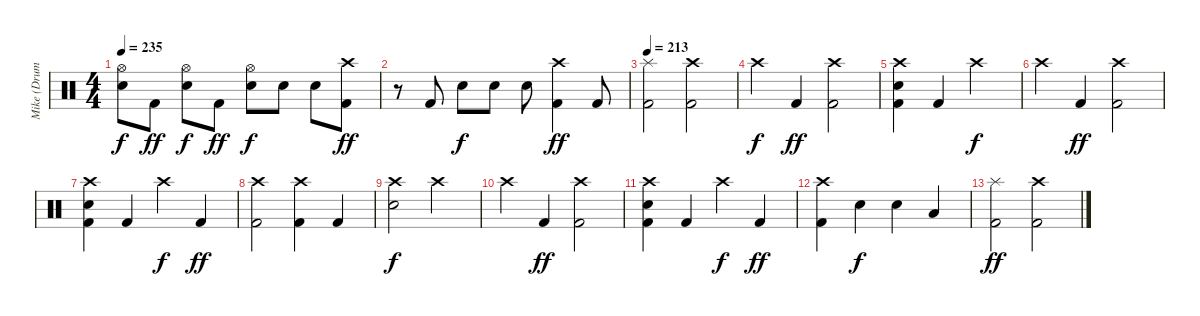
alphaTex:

\track ("Mike (Drums)" "Mike (Drum") {instrument percussion}
\staff {score}
\articulation defaults
\ts (4 4)
\tempo 235
\clef neutral
\ks c
("Hi-Hat (open)" "Electric Snare (hit)").8{dy f} "Kick (hit) 2".8{dy ff} ("Hi-Hat (open)" "Electric Snare (hit)").8{dy f} "Kick (hit) 2".8{dy ff} ("Hi-Hat (open)" "Electric Snare (hit)").8{dy f} "Electric Snare (hit)".8 "Electric Snare (hit)".8 ("Crash high (hit)" "Kick (hit) 2").8{dy ff} |
r.8 "Kick (hit) 2".8 "Electric Snare (hit)".8{dy f} "Electric Snare (hit)".8 "Electric Snare (hit)".8 ("Crash high (hit)" "Kick (hit) 2").4{dy ff} "Kick (hit) 2".8 |
\tempo 213
("Splash (hit)" "Kick (hit) 2").2 ("Crash high (hit)" "Kick (hit) 2").2 |
"Crash high (hit)".4{dy f} "Kick (hit) 2".4{dy ff} ("Crash high (hit)" "Kick (hit) 2").2 |
("Crash high (hit)" "Electric Snare (hit)" "Kick (hit) 2").4 "Kick (hit) 2".4 "Crash high (hit)".2{dy f} |
"Crash high (hit)".4 "Kick (hit) 2".4{dy ff} ("Crash high (hit)" "Kick (hit) 2").2 |
("Crash high (hit)" "Electric Snare (hit)" "Kick (hit) 2").4 "Kick (hit) 2".4 "Crash high (hit)".4{dy f} "Kick (hit) 2".4{dy ff} |
("Crash high (hit)" "Kick (hit) 2").2 ("Crash high (hit)" "Kick (hit) 2").4 "Kick (hit) 2".4 |
("Crash high (hit)" "Electric Snare (hit)").2{dy f} "Crash high (hit)".2 |
"Crash high (hit)".4 "Kick (hit) 2".4{dy ff} ("Crash high (hit)" "Kick (hit) 2").2 |
("Crash high (hit)" "Electric Snare (hit)" "Kick (hit) 2").4 "Kick (hit) 2".4 "Crash high (hit)".4{dy f} "Kick (hit) 2".4{dy ff} |
("Crash high (hit)" "Kick (hit) 2").4 "Electric Snare (hit)".4{dy f} "Electric Snare (hit)".4 "Low Tom (hit)".4 |
("Splash (hit)" "Kick (hit) 2").2{dy ff} ("Crash high (hit)" "Kick (hit) 2").2
